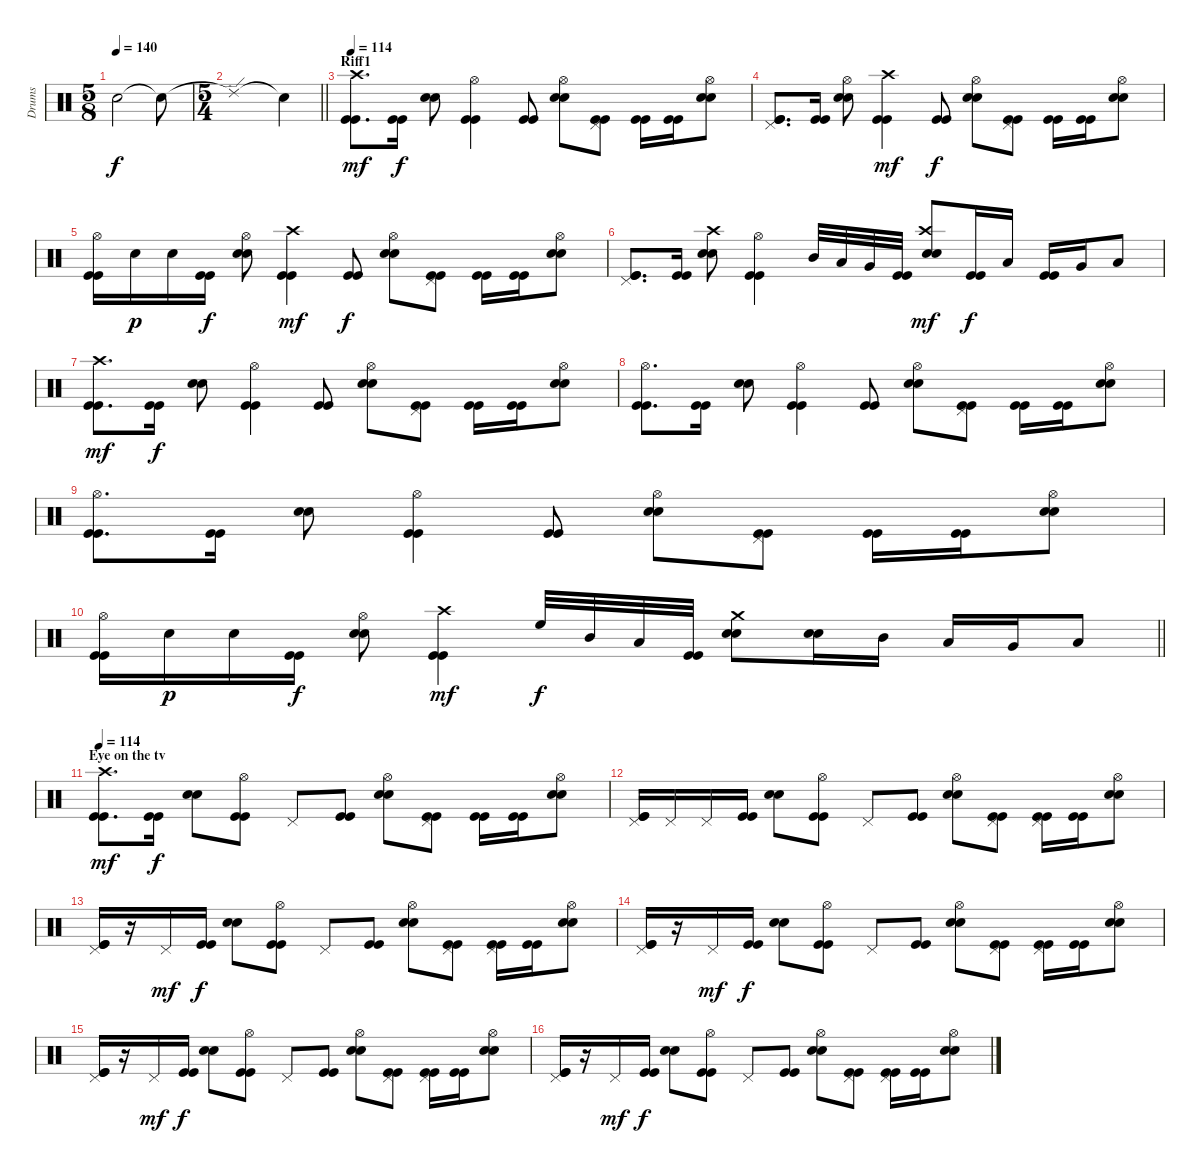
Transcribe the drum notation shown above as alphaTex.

\track ("Drums" "Drums") {instrument percussion}
\staff {score}
\articulation defaults
\ts (5 8)
\tempo 140
\clef neutral
\ks c "Snare (hit)"{t}.2{dy f} "Snare (hit)"{t}.8
|
\ts (5 4)
\barLineRight lightlight "Ride (edge) 2"{t}.1 "Snare (hit)"{t}.4
|
\section ("" "Riff1")
\tempo 114
("Kick (hit)" "Kick (hit)" "Crash high (hit)").8{d dy mf volume 16} ("Kick (hit)" "Kick (hit)").16{dy f} ("Snare (hit) 2" "Electric Snare (hit)").8 ("Kick (hit)" "Kick (hit)" "Hi-Hat (open)").4 ("Kick (hit)" "Kick (hit)").8 ("Snare (hit) 2" "Electric Snare (hit)" "Hi-Hat (open)").8 ("Kick (hit)" "Kick (hit)" "Pedal Hi-Hat (hit)").8 ("Kick (hit)" "Kick (hit)").16 ("Kick (hit)" "Kick (hit)").16 ("Snare (hit) 2" "Electric Snare (hit)" "Hi-Hat (open)").8 |
("Kick (hit)" "Kick (hit)" "Pedal Hi-Hat (hit)").8{d volume 16} ("Kick (hit)" "Kick (hit)").16 ("Snare (hit) 2" "Electric Snare (hit)" "Hi-Hat (open)").8 ("Kick (hit)" "Kick (hit)" "Crash high (hit)").4{dy mf} ("Kick (hit)" "Kick (hit)").8{dy f} ("Snare (hit) 2" "Electric Snare (hit)" "Hi-Hat (open)").8 ("Kick (hit)" "Kick (hit)" "Pedal Hi-Hat (hit)").8 ("Kick (hit)" "Kick (hit)").16 ("Kick (hit)" "Kick (hit)").16 ("Snare (hit) 2" "Electric Snare (hit)" "Hi-Hat (open)").8 |
("Kick (hit)" "Kick (hit)" "Hi-Hat (open)").16{volume 16} "Snare (hit) 2".16{dy p} "Snare (hit) 2".16 ("Kick (hit)" "Kick (hit)").16{dy f} ("Snare (hit) 2" "Electric Snare (hit)" "Hi-Hat (open)").8 ("Kick (hit)" "Kick (hit)" "Crash high (hit)").4{dy mf} ("Kick (hit)" "Kick (hit)").8{dy f} ("Snare (hit) 2" "Electric Snare (hit)" "Hi-Hat (open)").8 ("Kick (hit)" "Kick (hit)" "Pedal Hi-Hat (hit)").8 ("Kick (hit)" "Kick (hit)").16 ("Kick (hit)" "Kick (hit)").16 ("Snare (hit) 2" "Electric Snare (hit)" "Hi-Hat (open)").8 |
("Kick (hit)" "Kick (hit)" "Pedal Hi-Hat (hit)").8{d volume 16} ("Kick (hit)" "Kick (hit)").16 ("Snare (hit) 2" "Electric Snare (hit)" "Crash high (hit)").8 ("Kick (hit)" "Kick (hit)" "Hi-Hat (open)").4 "Mid Tom (hit)".32 "Low Tom (hit)".32 "Very Low Tom (hit)".32 ("Kick (hit)" "Kick (hit)").32 ("Snare (hit) 2" "Electric Snare (hit)" "Crash high (hit)").8{dy mf} ("Kick (hit)" "Kick (hit)").16{dy f} "Low Tom (hit)".16 ("Kick (hit)" "Kick (hit)").16 "Very Low Tom (hit)".16 "Low Floor Tom (hit)".8 |
("Kick (hit)" "Kick (hit)" "Crash high (hit)").8{d dy mf volume 16} ("Kick (hit)" "Kick (hit)").16{dy f} ("Snare (hit) 2" "Electric Snare (hit)").8 ("Kick (hit)" "Kick (hit)" "Hi-Hat (open)").4 ("Kick (hit)" "Kick (hit)").8 ("Snare (hit) 2" "Electric Snare (hit)" "Hi-Hat (open)").8 ("Kick (hit)" "Kick (hit)" "Pedal Hi-Hat (hit)").8 ("Kick (hit)" "Kick (hit)").16 ("Kick (hit)" "Kick (hit)").16 ("Snare (hit) 2" "Electric Snare (hit)" "Hi-Hat (open)").8 |
("Kick (hit)" "Kick (hit)" "Hi-Hat (open)").8{d volume 16} ("Kick (hit)" "Kick (hit)").16 ("Snare (hit) 2" "Electric Snare (hit)").8 ("Kick (hit)" "Kick (hit)" "Hi-Hat (open)").4 ("Kick (hit)" "Kick (hit)").8 ("Snare (hit) 2" "Electric Snare (hit)" "Hi-Hat (open)").8 ("Kick (hit)" "Kick (hit)" "Pedal Hi-Hat (hit)").8 ("Kick (hit)" "Kick (hit)").16 ("Kick (hit)" "Kick (hit)").16 ("Snare (hit) 2" "Electric Snare (hit)" "Hi-Hat (open)").8 |
("Kick (hit)" "Kick (hit)" "Hi-Hat (open)").8{d volume 16} ("Kick (hit)" "Kick (hit)").16 ("Snare (hit) 2" "Electric Snare (hit)").8 ("Kick (hit)" "Kick (hit)" "Hi-Hat (open)").4 ("Kick (hit)" "Kick (hit)").8 ("Snare (hit) 2" "Electric Snare (hit)" "Hi-Hat (open)").8 ("Kick (hit)" "Kick (hit)" "Pedal Hi-Hat (hit)").8 ("Kick (hit)" "Kick (hit)").16 ("Kick (hit)" "Kick (hit)").16 ("Snare (hit) 2" "Electric Snare (hit)" "Hi-Hat (open)").8 |
\barLineRight lightlight
("Kick (hit)" "Kick (hit)" "Hi-Hat (open)").16{volume 16} "Snare (hit) 2".16{dy p} "Snare (hit) 2".16 ("Kick (hit)" "Kick (hit)").16{dy f} ("Snare (hit) 2" "Electric Snare (hit)" "Hi-Hat (open)").8 ("Kick (hit)" "Kick (hit)" "Crash high (hit)").4{dy mf} "High Floor Tom (hit)".32{dy f} "Mid Tom (hit)".32 "Low Tom (hit)".32 ("Kick (hit)" "Kick (hit)").32 ("Snare (hit) 2" "Electric Snare (hit)" "Crash medium (hit)").8 ("Snare (hit) 2" "Electric Snare (hit)").16 "Mid Tom (hit)".16 "Low Tom (hit)".16 "Very Low Tom (hit)".16 "Low Floor Tom (hit)".8 |
\section ("" "Eye on the tv")
\tempo 114
("Kick (hit)" "Kick (hit)" "Crash high (hit)").8{d dy mf volume 16} ("Kick (hit)" "Kick (hit)").16{dy f} ("Snare (hit) 2" "Electric Snare (hit)").8 ("Kick (hit)" "Kick (hit)" "Hi-Hat (open)").8 "Pedal Hi-Hat (hit)".8 ("Kick (hit)" "Kick (hit)").8 ("Snare (hit) 2" "Electric Snare (hit)" "Hi-Hat (open)").8 ("Kick (hit)" "Kick (hit)" "Pedal Hi-Hat (hit)").8 ("Kick (hit)" "Kick (hit)").16 ("Kick (hit)" "Kick (hit)").16 ("Snare (hit) 2" "Electric Snare (hit)" "Hi-Hat (open)").8 |
("Kick (hit)" "Kick (hit)" "Pedal Hi-Hat (hit)").16 "Pedal Hi-Hat (hit)".16 "Pedal Hi-Hat (hit)".16 ("Kick (hit)" "Kick (hit)").16 ("Snare (hit) 2" "Electric Snare (hit)").8 ("Kick (hit)" "Kick (hit)" "Hi-Hat (open)").8 "Pedal Hi-Hat (hit)".8 ("Kick (hit)" "Kick (hit)").8 ("Snare (hit) 2" "Electric Snare (hit)" "Hi-Hat (open)").8 ("Kick (hit)" "Kick (hit)" "Pedal Hi-Hat (hit)").8 ("Kick (hit)" "Kick (hit)" "Pedal Hi-Hat (hit)").16 ("Kick (hit)" "Kick (hit)").16 ("Snare (hit) 2" "Electric Snare (hit)" "Hi-Hat (open)").8 |
("Kick (hit)" "Kick (hit)" "Pedal Hi-Hat (hit)").16 r.16 "Pedal Hi-Hat (hit)".16{dy mf} ("Kick (hit)" "Kick (hit)").16{dy f} ("Snare (hit) 2" "Electric Snare (hit)").8 ("Kick (hit)" "Kick (hit)" "Hi-Hat (open)").8 "Pedal Hi-Hat (hit)".8 ("Kick (hit)" "Kick (hit)").8 ("Snare (hit) 2" "Electric Snare (hit)" "Hi-Hat (open)").8 ("Kick (hit)" "Kick (hit)" "Pedal Hi-Hat (hit)").8 ("Kick (hit)" "Kick (hit)" "Pedal Hi-Hat (hit)").16 ("Kick (hit)" "Kick (hit)").16 ("Snare (hit) 2" "Electric Snare (hit)" "Hi-Hat (open)").8 |
("Kick (hit)" "Kick (hit)" "Pedal Hi-Hat (hit)").16 r.16 "Pedal Hi-Hat (hit)".16{dy mf} ("Kick (hit)" "Kick (hit)").16{dy f} ("Snare (hit) 2" "Electric Snare (hit)").8 ("Kick (hit)" "Kick (hit)" "Hi-Hat (open)").8 "Pedal Hi-Hat (hit)".8 ("Kick (hit)" "Kick (hit)").8 ("Snare (hit) 2" "Electric Snare (hit)" "Hi-Hat (open)").8 ("Kick (hit)" "Kick (hit)" "Pedal Hi-Hat (hit)").8 ("Kick (hit)" "Kick (hit)" "Pedal Hi-Hat (hit)").16 ("Kick (hit)" "Kick (hit)").16 ("Snare (hit) 2" "Electric Snare (hit)" "Hi-Hat (open)").8 |
("Kick (hit)" "Kick (hit)" "Pedal Hi-Hat (hit)").16 r.16 "Pedal Hi-Hat (hit)".16{dy mf} ("Kick (hit)" "Kick (hit)").16{dy f} ("Snare (hit) 2" "Electric Snare (hit)").8 ("Kick (hit)" "Kick (hit)" "Hi-Hat (open)").8 "Pedal Hi-Hat (hit)".8 ("Kick (hit)" "Kick (hit)").8 ("Snare (hit) 2" "Electric Snare (hit)" "Hi-Hat (open)").8 ("Kick (hit)" "Kick (hit)" "Pedal Hi-Hat (hit)").8 ("Kick (hit)" "Kick (hit)" "Pedal Hi-Hat (hit)").16 ("Kick (hit)" "Kick (hit)").16 ("Snare (hit) 2" "Electric Snare (hit)" "Hi-Hat (open)").8 |
("Kick (hit)" "Kick (hit)" "Pedal Hi-Hat (hit)").16 r.16 "Pedal Hi-Hat (hit)".16{dy mf} ("Kick (hit)" "Kick (hit)").16{dy f} ("Snare (hit) 2" "Electric Snare (hit)").8 ("Kick (hit)" "Kick (hit)" "Hi-Hat (open)").8 "Pedal Hi-Hat (hit)".8 ("Kick (hit)" "Kick (hit)").8 ("Snare (hit) 2" "Electric Snare (hit)" "Hi-Hat (open)").8 ("Kick (hit)" "Kick (hit)" "Pedal Hi-Hat (hit)").8 ("Kick (hit)" "Kick (hit)" "Pedal Hi-Hat (hit)").16 ("Kick (hit)" "Kick (hit)").16 ("Snare (hit) 2" "Electric Snare (hit)" "Hi-Hat (open)").8
